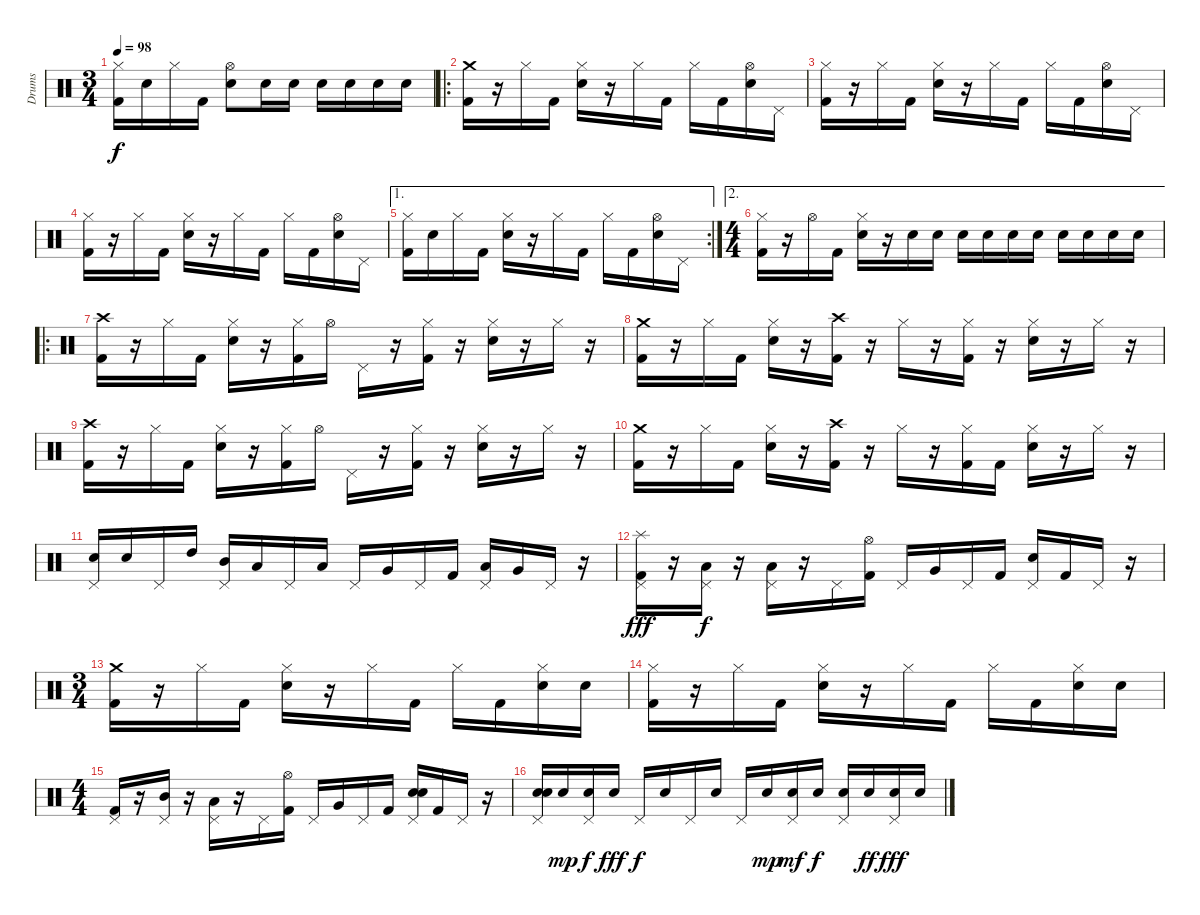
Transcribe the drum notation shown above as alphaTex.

\track ("Drums" "Drums") {instrument percussion}
\staff {score}
\articulation defaults
\ts (3 4)
\tempo 98
\clef neutral
\ks c
("Hi-Hat (closed)" "Kick (hit) 2").16{dy f} "Snare (hit) 2".16 "Hi-Hat (closed)".16 "Kick (hit) 2".16 ("Hi-Hat (open)" "Snare (hit) 2").8 "Snare (hit) 2".16 "Snare (hit) 2".16 "Snare (hit) 2".16 "Snare (hit) 2".16 "Snare (hit) 2".16 "Snare (hit) 2".16 |
\ro
("Crash medium (hit)" "Kick (hit) 2").16 r.16 "Hi-Hat (closed)".16 "Kick (hit) 2".16 ("Hi-Hat (closed)" "Snare (hit) 2").16 r.16 "Hi-Hat (closed)".16 "Kick (hit) 2".16 "Hi-Hat (closed)".16 "Kick (hit) 2".16 ("Hi-Hat (open)" "Snare (hit) 2").16 "Pedal Hi-Hat (hit)".16 |
("Hi-Hat (closed)" "Kick (hit) 2").16 r.16 "Hi-Hat (closed)".16 "Kick (hit) 2".16 ("Hi-Hat (closed)" "Snare (hit) 2").16 r.16 "Hi-Hat (closed)".16 "Kick (hit) 2".16 "Hi-Hat (closed)".16 "Kick (hit) 2".16 ("Hi-Hat (open)" "Snare (hit) 2").16 "Pedal Hi-Hat (hit)".16 |
("Hi-Hat (closed)" "Kick (hit) 2").16 r.16 "Hi-Hat (closed)".16 "Kick (hit) 2".16 ("Hi-Hat (closed)" "Snare (hit) 2").16 r.16 "Hi-Hat (closed)".16 "Kick (hit) 2".16 "Hi-Hat (closed)".16 "Kick (hit) 2".16 ("Hi-Hat (open)" "Snare (hit) 2").16 "Pedal Hi-Hat (hit)".16 |
\ae 1
\rc 2
("Hi-Hat (closed)" "Kick (hit) 2").16 "Snare (hit) 2".16 "Hi-Hat (closed)".16 "Kick (hit) 2".16 ("Hi-Hat (closed)" "Snare (hit) 2").16 r.16 "Hi-Hat (closed)".16 "Kick (hit) 2".16 "Hi-Hat (closed)".16 "Kick (hit) 2".16 ("Hi-Hat (open)" "Snare (hit) 2").16 "Pedal Hi-Hat (hit)".16 |
\ae 2
\ts (4 4)
("Hi-Hat (closed)" "Kick (hit) 2").16 r.16 "Hi-Hat (open)".16 "Kick (hit) 2".16 ("Hi-Hat (closed)" "Snare (hit) 2").16 r.16 "Snare (hit) 2".16 "Snare (hit) 2".16 "Snare (hit) 2".16 "Snare (hit) 2".16 "Snare (hit) 2".16 "Snare (hit) 2".16 "Snare (hit) 2".16 "Snare (hit) 2".16 "Snare (hit) 2".16 "Snare (hit) 2".16 |
\ro
("Crash high (hit)" "Kick (hit) 2").16 r.16 "Hi-Hat (closed)".16 "Kick (hit) 2".16 ("Hi-Hat (closed)" "Snare (hit) 2").16 r.16 ("Hi-Hat (closed)" "Kick (hit) 2").16 "Hi-Hat (open)".16 "Pedal Hi-Hat (hit)".16 r.16 ("Hi-Hat (closed)" "Kick (hit) 2").16 r.16 ("Hi-Hat (closed)" "Snare (hit) 2").16 r.16 "Hi-Hat (closed)".16 r.16 |
("Crash medium (hit)" "Kick (hit) 2").16 r.16 "Hi-Hat (closed)".16 "Kick (hit) 2".16 ("Hi-Hat (closed)" "Snare (hit) 2").16 r.16 ("Crash high (hit)" "Kick (hit) 2").16 r.16 "Hi-Hat (closed)".16 r.16 ("Hi-Hat (closed)" "Kick (hit) 2").16 r.16 ("Hi-Hat (closed)" "Snare (hit) 2").16 r.16 "Hi-Hat (closed)".16 r.16 |
("Crash high (hit)" "Kick (hit) 2").16 r.16 "Hi-Hat (closed)".16 "Kick (hit) 2".16 ("Hi-Hat (closed)" "Snare (hit) 2").16 r.16 ("Hi-Hat (closed)" "Kick (hit) 2").16 "Hi-Hat (open)".16 "Pedal Hi-Hat (hit)".16 r.16 ("Hi-Hat (closed)" "Kick (hit) 2").16 r.16 ("Hi-Hat (closed)" "Snare (hit) 2").16 r.16 "Hi-Hat (closed)".16 r.16 |
("Crash medium (hit)" "Kick (hit) 2").16 r.16 "Hi-Hat (closed)".16 "Kick (hit) 2".16 ("Hi-Hat (closed)" "Snare (hit) 2").16 r.16 ("Crash high (hit)" "Kick (hit) 2").16 r.16 "Hi-Hat (closed)".16 r.16 ("Hi-Hat (closed)" "Kick (hit) 2").16 "Kick (hit) 2".16 ("Hi-Hat (closed)" "Snare (hit) 2").16 r.16 "Hi-Hat (closed)".16 r.16 |
("Pedal Hi-Hat (hit)" "Snare (hit) 2").16 "Snare (hit) 2".16 "Pedal Hi-Hat (hit)".16 "High Tom (hit)".16 ("Pedal Hi-Hat (hit)" "Mid Tom (hit)").16 "Low Tom (hit)".16 "Pedal Hi-Hat (hit)".16 "Low Tom (hit)".16 "Pedal Hi-Hat (hit)".16 "Very Low Tom (hit)".16 "Pedal Hi-Hat (hit)".16 "Kick (hit) 2".16 ("Pedal Hi-Hat (hit)" "Low Tom (hit)").16 "Very Low Tom (hit)".16 "Pedal Hi-Hat (hit)".16 r.16 |
("Pedal Hi-Hat (hit)" "Splash (hit)" "Kick (hit) 2").16{dy fff} r.16 ("Pedal Hi-Hat (hit)" "Low Tom (hit)").16{dy f} r.16 ("Pedal Hi-Hat (hit)" "Low Floor Tom (hit)").16 r.16 "Pedal Hi-Hat (hit)".16 ("Hi-Hat (open)" "Kick (hit) 2").16 "Pedal Hi-Hat (hit)".16 "Very Low Tom (hit)".16 "Pedal Hi-Hat (hit)".16 "Kick (hit) 2".16 ("Pedal Hi-Hat (hit)" "Snare (hit) 2").16 "Kick (hit) 2".16 "Pedal Hi-Hat (hit)".16 r.16 |
\ts (3 4)
("Crash medium (hit)" "Kick (hit) 2").16 r.16 "Hi-Hat (closed)".16 "Kick (hit) 2".16 ("Hi-Hat (closed)" "Snare (hit) 2").16 r.16 "Hi-Hat (closed)".16 "Kick (hit) 2".16 "Hi-Hat (closed)".16 "Kick (hit) 2".16 ("Hi-Hat (closed)" "Snare (hit) 2").16 "Snare (hit) 2".16 |
("Hi-Hat (closed)" "Kick (hit) 2").16 r.16 "Hi-Hat (closed)".16 "Kick (hit) 2".16 ("Hi-Hat (closed)" "Snare (hit) 2").16 r.16 "Hi-Hat (closed)".16 "Kick (hit) 2".16 "Hi-Hat (closed)".16 "Kick (hit) 2".16 ("Hi-Hat (closed)" "Snare (hit) 2").16 "Snare (hit) 2".16 |
\ts (4 4)
("Pedal Hi-Hat (hit)" "Kick (hit) 2").16 r.16 ("Pedal Hi-Hat (hit)" "Mid Tom (hit)").16 r.16 ("Pedal Hi-Hat (hit)" "Low Tom (hit)").16 r.16 "Pedal Hi-Hat (hit)".16 ("Hi-Hat (open)" "Kick (hit) 2").16 "Pedal Hi-Hat (hit)".16 "Very Low Tom (hit)".16 "Pedal Hi-Hat (hit)".16 "Kick (hit) 2".16 ("Pedal Hi-Hat (hit)" "Snare (hit) 2" "Snare (hit) 2").16 "Kick (hit) 2".16 "Pedal Hi-Hat (hit)".16 r.16 |
("Pedal Hi-Hat (hit)" "Snare (hit) 2" "Snare (hit) 2").16 "Snare (hit) 2".16{dy mp} ("Pedal Hi-Hat (hit)" "Snare (hit) 2").16{dy f} "Snare (hit) 2".16{dy fff} "Pedal Hi-Hat (hit)".16{dy f} "Snare (hit) 2".16 "Pedal Hi-Hat (hit)".16 "Snare (hit) 2".16 "Pedal Hi-Hat (hit)".16 "Snare (hit) 2".16{dy mp} ("Pedal Hi-Hat (hit)" "Snare (hit) 2").16{dy mf} "Snare (hit) 2".16{dy f} ("Pedal Hi-Hat (hit)" "Snare (hit) 2").16 "Snare (hit) 2".16{dy ff} ("Pedal Hi-Hat (hit)" "Snare (hit) 2").16{dy fff} "Snare (hit) 2".16
